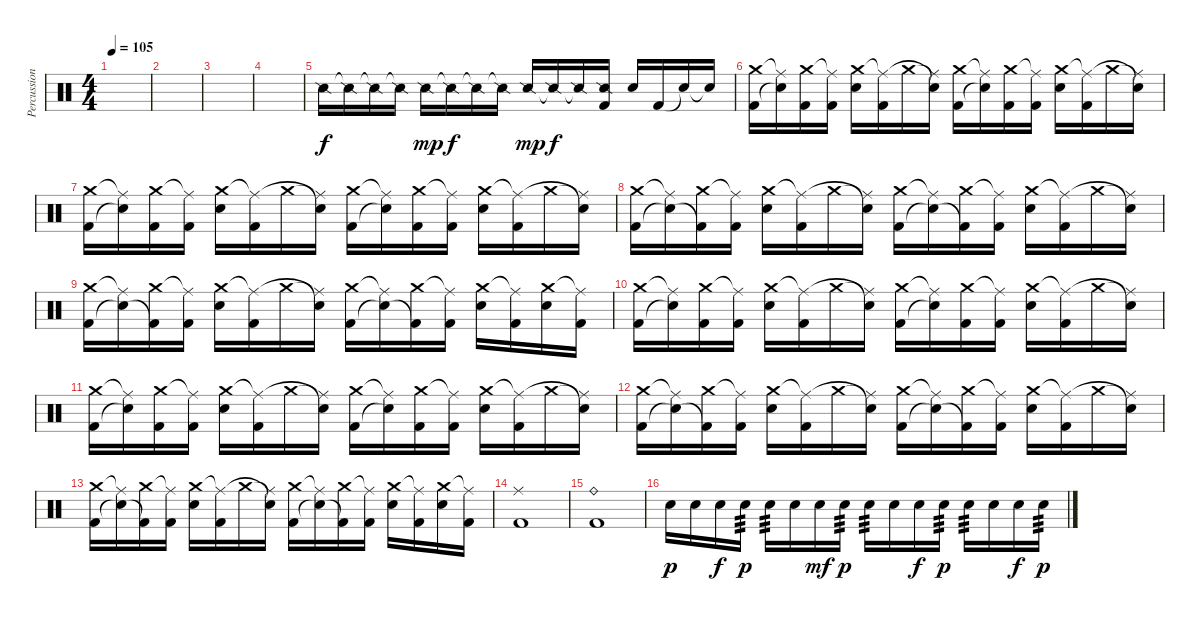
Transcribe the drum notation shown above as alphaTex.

\track ("Percussions" "Percussion") {instrument percussion}
\staff {score}
\articulation defaults
\ts (4 4)
\tempo 105
\clef neutral
\ks c
|
|
|
|
"Snare (side stick) 2".16 "Snare (side stick) 2"{t}.16{dy f} "Snare (side stick) 2"{t}.16 "Snare (side stick) 2"{t}.16 "Snare (side stick) 2".16{dy mp} "Snare (side stick) 2"{t}.16{dy f} "Snare (side stick) 2"{t}.16 "Snare (side stick) 2"{t}.16 "Snare (side stick) 2".16{dy mp} "Snare (side stick) 2"{t}.16{dy f} "Snare (side stick) 2"{t}.16 ("Kick (hit) 2" "Snare (side stick) 2").16 "Electric Snare (hit)".16 "Kick (hit) 2".16 "Snare (hit)"{t}.16 "Snare (hit)"{t}.16 |
("Kick (hit) 2" "Crash medium (hit)").16 ("Snare (hit)"{t} "Ride (middle)"{t}).16 ("Kick (hit) 2" "Crash medium (hit)").16 ("Kick (hit) 2" "Ride (middle)"{t}).16 ("Electric Snare (hit)" "Crash medium (hit)").16 ("Kick (hit) 2" "Ride (middle)"{t}).16 "Crash medium (hit)".16 ("Snare (hit)"{t} "Ride (middle)"{t}).16 ("Kick (hit) 2" "Crash medium (hit)").16 ("Snare (hit)"{t} "Ride (middle)"{t}).16 ("Kick (hit) 2" "Crash medium (hit)").16 ("Kick (hit) 2" "Ride (middle)"{t}).16 ("Electric Snare (hit)" "Crash medium (hit)").16 ("Kick (hit) 2" "Ride (middle)"{t}).16 "Crash medium (hit)".16 ("Snare (hit)"{t} "Ride (middle)"{t}).16 |
("Kick (hit) 2" "Crash medium (hit)").16 ("Snare (hit)"{t} "Ride (middle)"{t}).16 ("Kick (hit) 2" "Crash medium (hit)").16 ("Kick (hit) 2" "Ride (middle)"{t}).16 ("Electric Snare (hit)" "Crash medium (hit)").16 ("Kick (hit) 2" "Ride (middle)"{t}).16 "Crash medium (hit)".16 ("Snare (hit)"{t} "Ride (middle)"{t}).16 ("Kick (hit) 2" "Crash medium (hit)").16 ("Snare (hit)"{t} "Ride (middle)"{t}).16 ("Kick (hit) 2" "Crash medium (hit)").16 ("Kick (hit) 2" "Ride (middle)"{t}).16 ("Electric Snare (hit)" "Crash medium (hit)").16 ("Kick (hit) 2" "Ride (middle)"{t}).16 "Crash medium (hit)".16 ("Snare (hit)"{t} "Ride (middle)"{t}).16 |
("Kick (hit) 2" "Crash medium (hit)").16 ("Snare (hit)"{t} "Ride (middle)"{t}).16 ("Kick (hit) 2"{t} "Crash medium (hit)").16 ("Kick (hit) 2" "Ride (middle)"{t}).16 ("Electric Snare (hit)" "Crash medium (hit)").16 ("Kick (hit) 2" "Ride (middle)"{t}).16 "Crash medium (hit)".16 ("Snare (hit)"{t} "Ride (middle)"{t}).16 ("Kick (hit) 2" "Crash medium (hit)").16 ("Snare (hit)"{t} "Ride (middle)"{t}).16 ("Kick (hit) 2"{t} "Crash medium (hit)").16 ("Kick (hit) 2" "Ride (middle)"{t}).16 ("Electric Snare (hit)" "Crash medium (hit)").16 ("Kick (hit) 2" "Ride (middle)"{t}).16 "Crash medium (hit)".16 ("Snare (hit)"{t} "Ride (middle)"{t}).16 |
("Kick (hit) 2" "Crash medium (hit)").16 ("Snare (hit)"{t} "Ride (middle)"{t}).16 ("Kick (hit) 2"{t} "Crash medium (hit)").16 ("Kick (hit) 2" "Ride (middle)"{t}).16 ("Electric Snare (hit)" "Crash medium (hit)").16 ("Kick (hit) 2" "Ride (middle)"{t}).16 "Crash medium (hit)".16 ("Snare (hit)"{t} "Ride (middle)"{t}).16 ("Kick (hit) 2" "Crash medium (hit)").16 ("Snare (hit)"{t} "Ride (middle)"{t}).16 ("Kick (hit) 2"{t} "Crash medium (hit)").16 ("Kick (hit) 2" "Ride (middle)"{t}).16 ("Electric Snare (hit)" "Crash medium (hit)").16 ("Kick (hit) 2" "Ride (middle)"{t}).16 ("Electric Snare (hit)" "Crash medium (hit)").16 ("Kick (hit) 2" "Ride (middle)"{t}).16 |
("Kick (hit) 2" "Crash medium (hit)").16 ("Snare (hit)"{t} "Ride (middle)"{t}).16 ("Kick (hit) 2" "Crash medium (hit)").16 ("Kick (hit) 2" "Ride (middle)"{t}).16 ("Electric Snare (hit)" "Crash medium (hit)").16 ("Kick (hit) 2" "Ride (middle)"{t}).16 "Crash medium (hit)".16 ("Snare (hit)"{t} "Ride (middle)"{t}).16 ("Kick (hit) 2" "Crash medium (hit)").16 ("Snare (hit)"{t} "Ride (middle)"{t}).16 ("Kick (hit) 2" "Crash medium (hit)").16 ("Kick (hit) 2" "Ride (middle)"{t}).16 ("Electric Snare (hit)" "Crash medium (hit)").16 ("Kick (hit) 2" "Ride (middle)"{t}).16 "Crash medium (hit)".16 ("Snare (hit)"{t} "Ride (middle)"{t}).16 |
("Kick (hit) 2" "Crash medium (hit)").16 ("Snare (hit)"{t} "Ride (middle)"{t}).16 ("Kick (hit) 2" "Crash medium (hit)").16 ("Kick (hit) 2" "Ride (middle)"{t}).16 ("Electric Snare (hit)" "Crash medium (hit)").16 ("Kick (hit) 2" "Ride (middle)"{t}).16 "Crash medium (hit)".16 ("Snare (hit)"{t} "Ride (middle)"{t}).16 ("Kick (hit) 2" "Crash medium (hit)").16 ("Snare (hit)"{t} "Ride (middle)"{t}).16 ("Kick (hit) 2" "Crash medium (hit)").16 ("Kick (hit) 2" "Ride (middle)"{t}).16 ("Electric Snare (hit)" "Crash medium (hit)").16 ("Kick (hit) 2" "Ride (middle)"{t}).16 "Crash medium (hit)".16 ("Snare (hit)"{t} "Ride (middle)"{t}).16 |
("Kick (hit) 2" "Crash medium (hit)").16 ("Snare (hit)"{t} "Ride (middle)"{t}).16 ("Kick (hit) 2"{t} "Crash medium (hit)").16 ("Kick (hit) 2" "Ride (middle)"{t}).16 ("Electric Snare (hit)" "Crash medium (hit)").16 ("Kick (hit) 2" "Ride (middle)"{t}).16 "Crash medium (hit)".16 ("Snare (hit)"{t} "Ride (middle)"{t}).16 ("Kick (hit) 2" "Crash medium (hit)").16 ("Snare (hit)"{t} "Ride (middle)"{t}).16 ("Kick (hit) 2"{t} "Crash medium (hit)").16 ("Kick (hit) 2" "Ride (middle)"{t}).16 ("Electric Snare (hit)" "Crash medium (hit)").16 ("Kick (hit) 2" "Ride (middle)"{t}).16 "Crash medium (hit)".16 ("Snare (hit)"{t} "Ride (middle)"{t}).16 |
("Kick (hit) 2" "Crash medium (hit)").16 ("Snare (hit)"{t} "Ride (middle)"{t}).16 ("Kick (hit) 2"{t} "Crash medium (hit)").16 ("Kick (hit) 2" "Ride (middle)"{t}).16 ("Electric Snare (hit)" "Crash medium (hit)").16 ("Kick (hit) 2" "Ride (middle)"{t}).16 "Crash medium (hit)".16 ("Snare (hit)"{t} "Ride (middle)"{t}).16 ("Kick (hit) 2" "Crash medium (hit)").16 ("Snare (hit)"{t} "Ride (middle)"{t}).16 ("Kick (hit) 2"{t} "Crash medium (hit)").16 ("Kick (hit) 2" "Ride (middle)"{t}).16 ("Electric Snare (hit)" "Crash medium (hit)").16 ("Kick (hit) 2" "Ride (middle)"{t}).16 ("Electric Snare (hit)" "Crash medium (hit)").16 ("Kick (hit) 2" "Ride (middle)"{t}).16 |
("Ride (middle)" "Kick (hit) 2").1 |
("Ride (bell)" "Kick (hit) 2").1 |
"Electric Snare (hit)".16{dy p} "Electric Snare (hit)".16 "Electric Snare (hit)".16{dy f} "Electric Snare (hit)".16{tp 3 dy p} "Electric Snare (hit)".16{tp 3} "Electric Snare (hit)".16 "Electric Snare (hit)".16{dy mf} "Electric Snare (hit)".16{tp 3 dy p} "Electric Snare (hit)".16{tp 3} "Electric Snare (hit)".16 "Electric Snare (hit)".16{dy f} "Electric Snare (hit)".16{tp 3 dy p} "Electric Snare (hit)".16{tp 3} "Electric Snare (hit)".16 "Electric Snare (hit)".16{dy f} "Electric Snare (hit)".16{tp 3 dy p}
